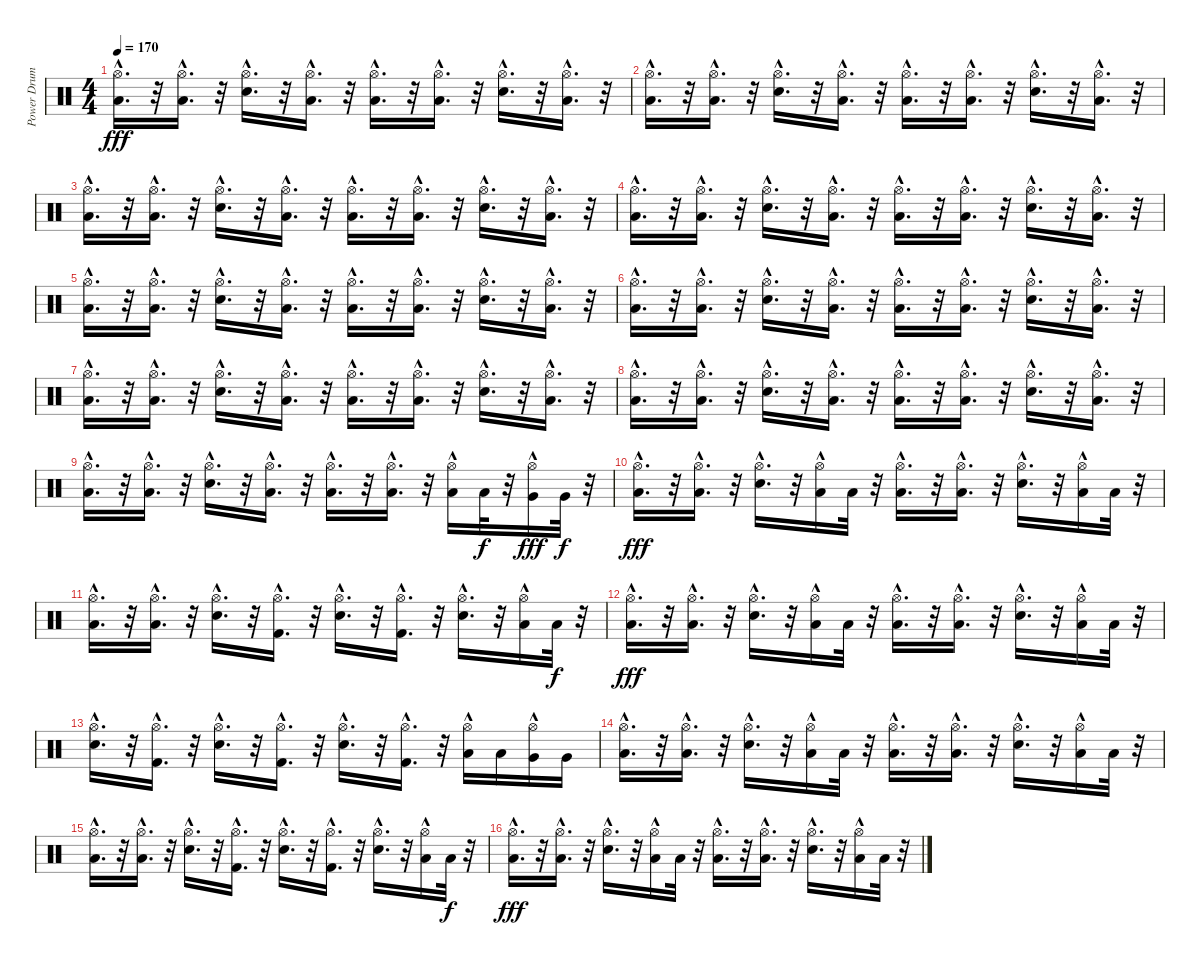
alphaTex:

\track ("Power Drums " "Power Drum") {instrument percussion}
\staff {score}
\articulation defaults
\ts (4 4)
\tempo 170
\clef neutral
\ks c
("Hi-Hat (open)"{hac} "Low Floor Tom (hit)"{hac}).16{d dy fff} r.32 ("Hi-Hat (open)"{hac} "Low Floor Tom (hit)"{hac}).16{d} r.32 ("Hi-Hat (open)"{hac} "Snare (hit) 2"{hac}).16{d} r.32 ("Hi-Hat (open)"{hac} "Low Floor Tom (hit)"{hac}).16{d} r.32 ("Hi-Hat (open)"{hac} "Low Floor Tom (hit)"{hac}).16{d} r.32 ("Hi-Hat (open)"{hac} "Low Floor Tom (hit)"{hac}).16{d} r.32 ("Hi-Hat (open)"{hac} "Snare (hit) 2"{hac}).16{d} r.32 ("Hi-Hat (open)"{hac} "Low Floor Tom (hit)"{hac}).16{d} r.32 |
("Hi-Hat (open)"{hac} "Low Floor Tom (hit)"{hac}).16{d} r.32 ("Hi-Hat (open)"{hac} "Low Floor Tom (hit)"{hac}).16{d} r.32 ("Hi-Hat (open)"{hac} "Snare (hit) 2"{hac}).16{d} r.32 ("Hi-Hat (open)"{hac} "Low Floor Tom (hit)"{hac}).16{d} r.32 ("Hi-Hat (open)"{hac} "Low Floor Tom (hit)"{hac}).16{d} r.32 ("Hi-Hat (open)"{hac} "Low Floor Tom (hit)"{hac}).16{d} r.32 ("Hi-Hat (open)"{hac} "Snare (hit) 2"{hac}).16{d} r.32 ("Hi-Hat (open)"{hac} "Low Floor Tom (hit)"{hac}).16{d} r.32 |
("Hi-Hat (open)"{hac} "Low Floor Tom (hit)"{hac}).16{d} r.32 ("Hi-Hat (open)"{hac} "Low Floor Tom (hit)"{hac}).16{d} r.32 ("Hi-Hat (open)"{hac} "Snare (hit) 2"{hac}).16{d} r.32 ("Hi-Hat (open)"{hac} "Low Floor Tom (hit)"{hac}).16{d} r.32 ("Hi-Hat (open)"{hac} "Low Floor Tom (hit)"{hac}).16{d} r.32 ("Hi-Hat (open)"{hac} "Low Floor Tom (hit)"{hac}).16{d} r.32 ("Hi-Hat (open)"{hac} "Snare (hit) 2"{hac}).16{d} r.32 ("Hi-Hat (open)"{hac} "Low Floor Tom (hit)"{hac}).16{d} r.32 |
("Hi-Hat (open)"{hac} "Low Floor Tom (hit)"{hac}).16{d} r.32 ("Hi-Hat (open)"{hac} "Low Floor Tom (hit)"{hac}).16{d} r.32 ("Hi-Hat (open)"{hac} "Snare (hit) 2"{hac}).16{d} r.32 ("Hi-Hat (open)"{hac} "Low Floor Tom (hit)"{hac}).16{d} r.32 ("Hi-Hat (open)"{hac} "Low Floor Tom (hit)"{hac}).16{d} r.32 ("Hi-Hat (open)"{hac} "Low Floor Tom (hit)"{hac}).16{d} r.32 ("Hi-Hat (open)"{hac} "Snare (hit) 2"{hac}).16{d} r.32 ("Hi-Hat (open)"{hac} "Low Floor Tom (hit)"{hac}).16{d} r.32 |
("Hi-Hat (open)"{hac} "Low Floor Tom (hit)"{hac}).16{d} r.32 ("Hi-Hat (open)"{hac} "Low Floor Tom (hit)"{hac}).16{d} r.32 ("Hi-Hat (open)"{hac} "Snare (hit) 2"{hac}).16{d} r.32 ("Hi-Hat (open)"{hac} "Low Floor Tom (hit)"{hac}).16{d} r.32 ("Hi-Hat (open)"{hac} "Low Floor Tom (hit)"{hac}).16{d} r.32 ("Hi-Hat (open)"{hac} "Low Floor Tom (hit)"{hac}).16{d} r.32 ("Hi-Hat (open)"{hac} "Snare (hit) 2"{hac}).16{d} r.32 ("Hi-Hat (open)"{hac} "Low Floor Tom (hit)"{hac}).16{d} r.32 |
("Hi-Hat (open)"{hac} "Low Floor Tom (hit)"{hac}).16{d} r.32 ("Hi-Hat (open)"{hac} "Low Floor Tom (hit)"{hac}).16{d} r.32 ("Hi-Hat (open)"{hac} "Snare (hit) 2"{hac}).16{d} r.32 ("Hi-Hat (open)"{hac} "Low Floor Tom (hit)"{hac}).16{d} r.32 ("Hi-Hat (open)"{hac} "Low Floor Tom (hit)"{hac}).16{d} r.32 ("Hi-Hat (open)"{hac} "Low Floor Tom (hit)"{hac}).16{d} r.32 ("Hi-Hat (open)"{hac} "Snare (hit) 2"{hac}).16{d} r.32 ("Hi-Hat (open)"{hac} "Low Floor Tom (hit)"{hac}).16{d} r.32 |
("Hi-Hat (open)"{hac} "Low Floor Tom (hit)"{hac}).16{d} r.32 ("Hi-Hat (open)"{hac} "Low Floor Tom (hit)"{hac}).16{d} r.32 ("Hi-Hat (open)"{hac} "Snare (hit) 2"{hac}).16{d} r.32 ("Hi-Hat (open)"{hac} "Low Floor Tom (hit)"{hac}).16{d} r.32 ("Hi-Hat (open)"{hac} "Low Floor Tom (hit)"{hac}).16{d} r.32 ("Hi-Hat (open)"{hac} "Low Floor Tom (hit)"{hac}).16{d} r.32 ("Hi-Hat (open)"{hac} "Snare (hit) 2"{hac}).16{d} r.32 ("Hi-Hat (open)"{hac} "Low Floor Tom (hit)"{hac}).16{d} r.32 |
("Hi-Hat (open)"{hac} "Low Floor Tom (hit)"{hac}).16{d} r.32 ("Hi-Hat (open)"{hac} "Low Floor Tom (hit)"{hac}).16{d} r.32 ("Hi-Hat (open)"{hac} "Snare (hit) 2"{hac}).16{d} r.32 ("Hi-Hat (open)"{hac} "Low Floor Tom (hit)"{hac}).16{d} r.32 ("Hi-Hat (open)"{hac} "Low Floor Tom (hit)"{hac}).16{d} r.32 ("Hi-Hat (open)"{hac} "Low Floor Tom (hit)"{hac}).16{d} r.32 ("Hi-Hat (open)"{hac} "Snare (hit) 2"{hac}).16{d} r.32 ("Hi-Hat (open)"{hac} "Low Floor Tom (hit)"{hac}).16{d} r.32 |
("Hi-Hat (open)"{hac} "Low Floor Tom (hit)"{hac}).16{d} r.32 ("Hi-Hat (open)"{hac} "Low Floor Tom (hit)"{hac}).16{d} r.32 ("Hi-Hat (open)"{hac} "Snare (hit) 2"{hac}).16{d} r.32 ("Hi-Hat (open)"{hac} "Low Floor Tom (hit)"{hac}).16{d} r.32 ("Hi-Hat (open)"{hac} "Low Floor Tom (hit)"{hac}).16{d} r.32 ("Hi-Hat (open)"{hac} "Low Floor Tom (hit)"{hac}).16{d} r.32 ("Hi-Hat (open)"{hac} "Low Tom (hit)").16 "Low Tom (hit)".32{dy f} r.32 ("Hi-Hat (open)"{hac} "Very Low Tom (hit)").16{dy fff} "Very Low Tom (hit)".32{dy f} r.32 |
("Hi-Hat (open)"{hac} "Low Floor Tom (hit)"{hac}).16{d dy fff} r.32 ("Hi-Hat (open)"{hac} "Low Floor Tom (hit)"{hac}).16{d} r.32 ("Snare (hit) 2"{hac} "Hi-Hat (open)"{hac}).16{d} r.32 ("Hi-Hat (open)"{hac} "Low Floor Tom (hit)").16 "Low Floor Tom (hit)".32 r.32 ("Hi-Hat (open)"{hac} "Low Floor Tom (hit)"{hac}).16{d} r.32 ("Hi-Hat (open)"{hac} "Low Floor Tom (hit)"{hac}).16{d} r.32 ("Snare (hit) 2"{hac} "Hi-Hat (open)"{hac}).16{d} r.32 ("Hi-Hat (open)"{hac} "Low Floor Tom (hit)").16 "Low Floor Tom (hit)".32 r.32 |
("Hi-Hat (open)"{hac} "Low Floor Tom (hit)"{hac}).16{d} r.32 ("Hi-Hat (open)"{hac} "Low Floor Tom (hit)"{hac}).16{d} r.32 ("Snare (hit) 2"{hac} "Hi-Hat (open)"{hac}).16{d} r.32 ("Kick (hit) 2"{hac} "Hi-Hat (open)"{hac}).16{d} r.32 ("Snare (hit) 2"{hac} "Hi-Hat (open)"{hac}).16{d} r.32 ("Kick (hit) 2"{hac} "Hi-Hat (open)"{hac}).16{d} r.32 ("Snare (hit) 2"{hac} "Hi-Hat (open)"{hac}).16{d} r.32 ("Hi-Hat (open)"{hac} "Low Floor Tom (hit)").16 "Low Floor Tom (hit)".32{dy f} r.32 |
("Hi-Hat (open)"{hac} "Low Floor Tom (hit)"{hac}).16{d dy fff} r.32 ("Hi-Hat (open)"{hac} "Low Floor Tom (hit)"{hac}).16{d} r.32 ("Snare (hit) 2"{hac} "Hi-Hat (open)"{hac}).16{d} r.32 ("Hi-Hat (open)"{hac} "Low Floor Tom (hit)").16 "Low Floor Tom (hit)".32 r.32 ("Hi-Hat (open)"{hac} "Low Floor Tom (hit)"{hac}).16{d} r.32 ("Hi-Hat (open)"{hac} "Low Floor Tom (hit)"{hac}).16{d} r.32 ("Snare (hit) 2"{hac} "Hi-Hat (open)"{hac}).16{d} r.32 ("Hi-Hat (open)"{hac} "Low Floor Tom (hit)").16 "Low Floor Tom (hit)".32 r.32 |
("Snare (hit) 2"{hac} "Hi-Hat (open)"{hac}).16{d} r.32 ("Kick (hit) 2"{hac} "Hi-Hat (open)"{hac}).16{d} r.32 ("Snare (hit) 2"{hac} "Hi-Hat (open)"{hac}).16{d} r.32 ("Kick (hit) 2"{hac} "Hi-Hat (open)"{hac}).16{d} r.32 ("Snare (hit) 2"{hac} "Hi-Hat (open)"{hac}).16{d} r.32 ("Kick (hit) 2"{hac} "Hi-Hat (open)"{hac}).16{d} r.32 ("Hi-Hat (open)"{hac} "Low Tom (hit)").16 "Low Tom (hit)".16 ("Hi-Hat (open)"{hac} "Very Low Tom (hit)").16 "Very Low Tom (hit)".16 |
("Hi-Hat (open)"{hac} "Low Floor Tom (hit)"{hac}).16{d} r.32 ("Hi-Hat (open)"{hac} "Low Floor Tom (hit)"{hac}).16{d} r.32 ("Snare (hit) 2"{hac} "Hi-Hat (open)"{hac}).16{d} r.32 ("Hi-Hat (open)"{hac} "Low Floor Tom (hit)").16 "Low Floor Tom (hit)".32 r.32 ("Hi-Hat (open)"{hac} "Low Floor Tom (hit)"{hac}).16{d} r.32 ("Hi-Hat (open)"{hac} "Low Floor Tom (hit)"{hac}).16{d} r.32 ("Snare (hit) 2"{hac} "Hi-Hat (open)"{hac}).16{d} r.32 ("Hi-Hat (open)"{hac} "Low Floor Tom (hit)").16 "Low Floor Tom (hit)".32 r.32 |
("Hi-Hat (open)"{hac} "Low Floor Tom (hit)"{hac}).16{d} r.32 ("Hi-Hat (open)"{hac} "Low Floor Tom (hit)"{hac}).16{d} r.32 ("Snare (hit) 2"{hac} "Hi-Hat (open)"{hac}).16{d} r.32 ("Kick (hit) 2"{hac} "Hi-Hat (open)"{hac}).16{d} r.32 ("Snare (hit) 2"{hac} "Hi-Hat (open)"{hac}).16{d} r.32 ("Kick (hit) 2"{hac} "Hi-Hat (open)"{hac}).16{d} r.32 ("Snare (hit) 2"{hac} "Hi-Hat (open)"{hac}).16{d} r.32 ("Hi-Hat (open)"{hac} "Low Floor Tom (hit)").16 "Low Floor Tom (hit)".32{dy f} r.32 |
("Hi-Hat (open)"{hac} "Low Floor Tom (hit)"{hac}).16{d dy fff} r.32 ("Hi-Hat (open)"{hac} "Low Floor Tom (hit)"{hac}).16{d} r.32 ("Snare (hit) 2"{hac} "Hi-Hat (open)"{hac}).16{d} r.32 ("Hi-Hat (open)"{hac} "Low Floor Tom (hit)").16 "Low Floor Tom (hit)".32 r.32 ("Hi-Hat (open)"{hac} "Low Floor Tom (hit)"{hac}).16{d} r.32 ("Hi-Hat (open)"{hac} "Low Floor Tom (hit)"{hac}).16{d} r.32 ("Snare (hit) 2"{hac} "Hi-Hat (open)"{hac}).16{d} r.32 ("Hi-Hat (open)"{hac} "Low Floor Tom (hit)").16 "Low Floor Tom (hit)".32 r.32
